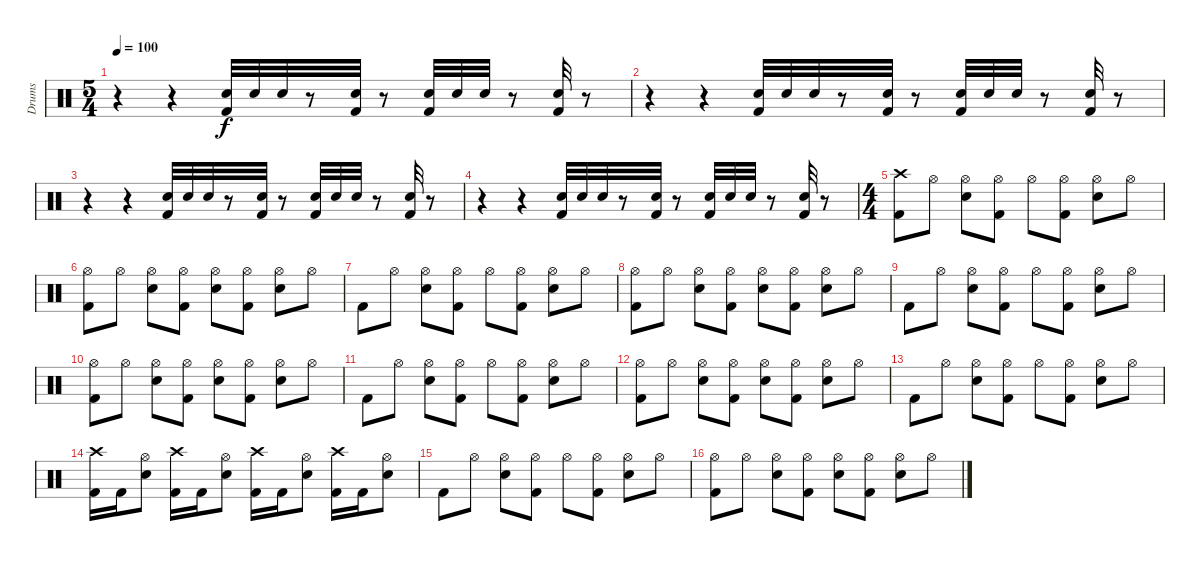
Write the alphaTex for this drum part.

\track ("Drums" "Drums") {instrument percussion}
\staff {score}
\articulation defaults
\ts (5 4)
\tempo 100
\clef neutral
\ks c
r.4{dy f volume 3} r.4 ("Electric Snare (hit)" "Kick (hit) 2").32 "Electric Snare (hit)".32 "Electric Snare (hit)".32 r.8 ("Electric Snare (hit)" "Kick (hit) 2").32 r.8 ("Electric Snare (hit)" "Kick (hit) 2").32 "Electric Snare (hit)".32 "Electric Snare (hit)".32 r.8 ("Electric Snare (hit)" "Kick (hit) 2").32 r.8 |
r.4{volume 6} r.4 ("Electric Snare (hit)" "Kick (hit) 2").32 "Electric Snare (hit)".32 "Electric Snare (hit)".32 r.8 ("Electric Snare (hit)" "Kick (hit) 2").32 r.8 ("Electric Snare (hit)" "Kick (hit) 2").32 "Electric Snare (hit)".32 "Electric Snare (hit)".32 r.8 ("Electric Snare (hit)" "Kick (hit) 2").32 r.8 |
r.4{volume 9} r.4 ("Electric Snare (hit)" "Kick (hit) 2").32 "Electric Snare (hit)".32 "Electric Snare (hit)".32 r.8 ("Electric Snare (hit)" "Kick (hit) 2").32 r.8 ("Electric Snare (hit)" "Kick (hit) 2").32 "Electric Snare (hit)".32 "Electric Snare (hit)".32 r.8 ("Electric Snare (hit)" "Kick (hit) 2").32 r.8 |
r.4{volume 12} r.4 ("Electric Snare (hit)" "Kick (hit) 2").32 "Electric Snare (hit)".32 "Electric Snare (hit)".32 r.8 ("Electric Snare (hit)" "Kick (hit) 2").32 r.8 ("Electric Snare (hit)" "Kick (hit) 2").32 "Electric Snare (hit)".32 "Electric Snare (hit)".32 r.8 ("Electric Snare (hit)" "Kick (hit) 2").32 r.8 |
\ts (4 4)
("Crash high (hit)" "Kick (hit) 2").8 "Hi-Hat (open)".8 ("Hi-Hat (open)" "Electric Snare (hit)").8 ("Hi-Hat (open)" "Kick (hit) 2").8 "Hi-Hat (open)".8 ("Hi-Hat (open)" "Kick (hit) 2").8 ("Hi-Hat (open)" "Electric Snare (hit)").8 "Hi-Hat (open)".8 |
("Hi-Hat (open)" "Kick (hit) 2").8 "Hi-Hat (open)".8 ("Hi-Hat (open)" "Electric Snare (hit)").8 ("Hi-Hat (open)" "Kick (hit) 2").8 ("Hi-Hat (open)" "Electric Snare (hit)").8 ("Hi-Hat (open)" "Kick (hit) 2").8 ("Hi-Hat (open)" "Electric Snare (hit)").8 "Hi-Hat (open)".8 |
"Kick (hit) 2".8 "Hi-Hat (open)".8 ("Hi-Hat (open)" "Electric Snare (hit)").8 ("Hi-Hat (open)" "Kick (hit) 2").8 "Hi-Hat (open)".8 ("Hi-Hat (open)" "Kick (hit) 2").8 ("Hi-Hat (open)" "Electric Snare (hit)").8 "Hi-Hat (open)".8 |
("Hi-Hat (open)" "Kick (hit) 2").8 "Hi-Hat (open)".8 ("Hi-Hat (open)" "Electric Snare (hit)").8 ("Hi-Hat (open)" "Kick (hit) 2").8 ("Hi-Hat (open)" "Electric Snare (hit)").8 ("Hi-Hat (open)" "Kick (hit) 2").8 ("Hi-Hat (open)" "Electric Snare (hit)").8 "Hi-Hat (open)".8 |
"Kick (hit) 2".8 "Hi-Hat (open)".8 ("Hi-Hat (open)" "Electric Snare (hit)").8 ("Hi-Hat (open)" "Kick (hit) 2").8 "Hi-Hat (open)".8 ("Hi-Hat (open)" "Kick (hit) 2").8 ("Hi-Hat (open)" "Electric Snare (hit)").8 "Hi-Hat (open)".8 |
("Hi-Hat (open)" "Kick (hit) 2").8 "Hi-Hat (open)".8 ("Hi-Hat (open)" "Electric Snare (hit)").8 ("Hi-Hat (open)" "Kick (hit) 2").8 ("Hi-Hat (open)" "Electric Snare (hit)").8 ("Hi-Hat (open)" "Kick (hit) 2").8 ("Hi-Hat (open)" "Electric Snare (hit)").8 "Hi-Hat (open)".8 |
"Kick (hit) 2".8 "Hi-Hat (open)".8 ("Hi-Hat (open)" "Electric Snare (hit)").8 ("Hi-Hat (open)" "Kick (hit) 2").8 "Hi-Hat (open)".8 ("Hi-Hat (open)" "Kick (hit) 2").8 ("Hi-Hat (open)" "Electric Snare (hit)").8 "Hi-Hat (open)".8 |
("Hi-Hat (open)" "Kick (hit) 2").8 "Hi-Hat (open)".8 ("Hi-Hat (open)" "Electric Snare (hit)").8 ("Hi-Hat (open)" "Kick (hit) 2").8 ("Hi-Hat (open)" "Electric Snare (hit)").8 ("Hi-Hat (open)" "Kick (hit) 2").8 ("Hi-Hat (open)" "Electric Snare (hit)").8 "Hi-Hat (open)".8 |
"Kick (hit) 2".8 "Hi-Hat (open)".8 ("Hi-Hat (open)" "Electric Snare (hit)").8 ("Hi-Hat (open)" "Kick (hit) 2").8 "Hi-Hat (open)".8 ("Hi-Hat (open)" "Kick (hit) 2").8 ("Hi-Hat (open)" "Electric Snare (hit)").8 "Hi-Hat (open)".8 |
("Crash high (hit)" "Kick (hit) 2").16 "Kick (hit) 2".16 ("Hi-Hat (open)" "Electric Snare (hit)").8 ("Crash high (hit)" "Kick (hit) 2").16 "Kick (hit) 2".16 ("Hi-Hat (open)" "Electric Snare (hit)").8 ("Crash high (hit)" "Kick (hit) 2").16 "Kick (hit) 2".16 ("Hi-Hat (open)" "Electric Snare (hit)").8 ("Crash high (hit)" "Kick (hit) 2").16 "Kick (hit) 2".16 ("Hi-Hat (open)" "Electric Snare (hit)").8 |
"Kick (hit) 2".8 "Hi-Hat (open)".8 ("Hi-Hat (open)" "Electric Snare (hit)").8 ("Hi-Hat (open)" "Kick (hit) 2").8 "Hi-Hat (open)".8 ("Hi-Hat (open)" "Kick (hit) 2").8 ("Hi-Hat (open)" "Electric Snare (hit)").8 "Hi-Hat (open)".8 |
("Hi-Hat (open)" "Kick (hit) 2").8 "Hi-Hat (open)".8 ("Hi-Hat (open)" "Electric Snare (hit)").8 ("Hi-Hat (open)" "Kick (hit) 2").8 ("Hi-Hat (open)" "Electric Snare (hit)").8 ("Hi-Hat (open)" "Kick (hit) 2").8 ("Hi-Hat (open)" "Electric Snare (hit)").8 "Hi-Hat (open)".8
